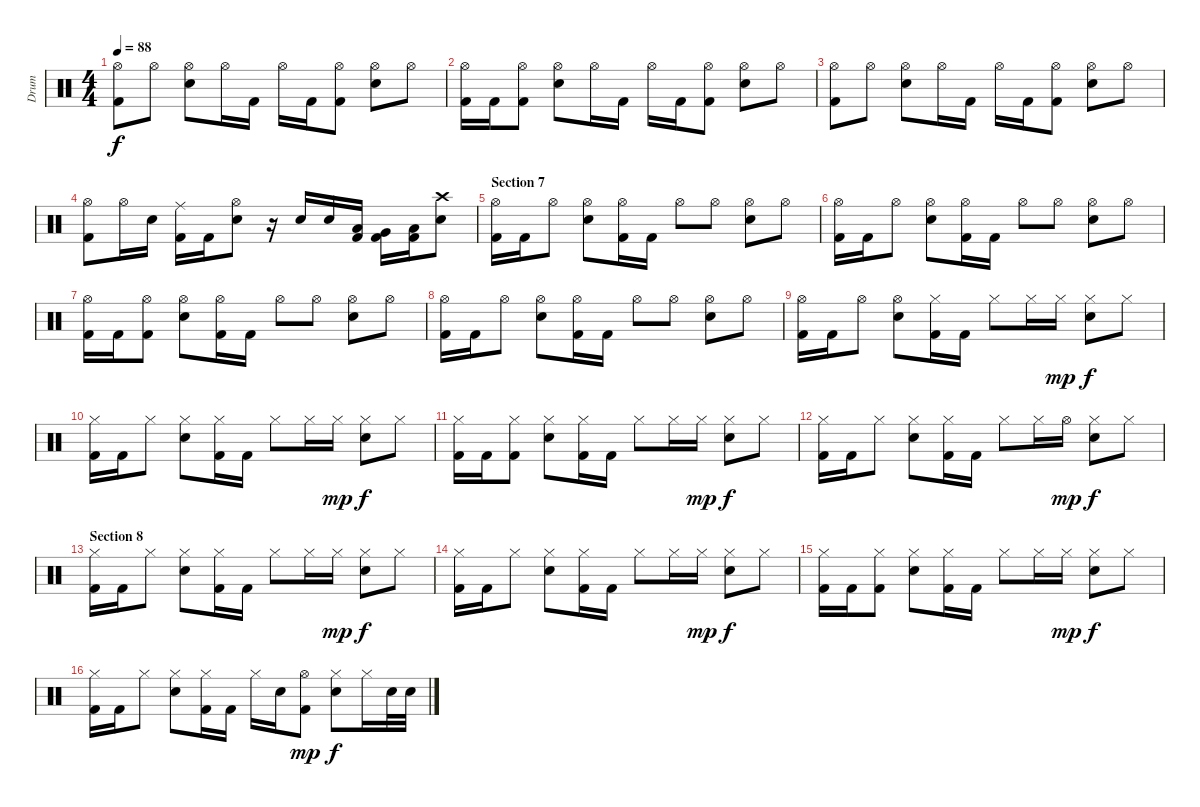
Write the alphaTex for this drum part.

\track ("Drum" "Drum") {instrument percussion}
\staff {score}
\articulation defaults
\ts (4 4)
\tempo 88
\clef neutral
\ks c
("Hi-Hat (open)" "Kick (hit) 2").8{dy f} "Hi-Hat (open)".8 ("Hi-Hat (open)" "Electric Snare (hit)").8 "Hi-Hat (open)".16 "Kick (hit) 2".16 "Hi-Hat (open)".16 "Kick (hit) 2".16 ("Hi-Hat (open)" "Kick (hit) 2").8 ("Hi-Hat (open)" "Electric Snare (hit)").8 "Hi-Hat (open)".8 |
("Hi-Hat (open)" "Kick (hit) 2").16 "Kick (hit) 2".16 ("Hi-Hat (open)" "Kick (hit) 2").8 ("Hi-Hat (open)" "Electric Snare (hit)").8 "Hi-Hat (open)".16 "Kick (hit) 2".16 "Hi-Hat (open)".16 "Kick (hit) 2".16 ("Hi-Hat (open)" "Kick (hit) 2").8 ("Hi-Hat (open)" "Electric Snare (hit)").8 "Hi-Hat (open)".8 |
("Hi-Hat (open)" "Kick (hit) 2").8 "Hi-Hat (open)".8 ("Hi-Hat (open)" "Electric Snare (hit)").8 "Hi-Hat (open)".16 "Kick (hit) 2".16 "Hi-Hat (open)".16 "Kick (hit) 2".16 ("Hi-Hat (open)" "Kick (hit) 2").8 ("Hi-Hat (open)" "Electric Snare (hit)").8 "Hi-Hat (open)".8 |
("Hi-Hat (open)" "Kick (hit) 2").8 "Hi-Hat (open)".16 "Electric Snare (hit)".16 ("Ride (middle)" "Kick (hit) 2").16 "Kick (hit) 2".16 ("Hi-Hat (open)" "Electric Snare (hit)").8 r.16 "Electric Snare (hit)".16 "Electric Snare (hit)".16 ("Low Tom (hit)" "Kick (hit) 2").16 ("Very Low Tom (hit)" "Kick (hit) 2").16 ("Low Floor Tom (hit)" "Kick (hit) 2").16 ("Crash high (hit)" "Electric Snare (hit)").8 |
\section ("" "Section 7")
("Hi-Hat (open)" "Kick (hit) 2").16 "Kick (hit) 2".16 "Hi-Hat (open)".8 ("Hi-Hat (open)" "Electric Snare (hit)").8 ("Hi-Hat (open)" "Kick (hit) 2").16 "Kick (hit) 2".16 "Hi-Hat (open)".8 "Hi-Hat (open)".8 ("Hi-Hat (open)" "Electric Snare (hit)").8 "Hi-Hat (open)".8 |
("Hi-Hat (open)" "Kick (hit) 2").16 "Kick (hit) 2".16 "Hi-Hat (open)".8 ("Hi-Hat (open)" "Electric Snare (hit)").8 ("Hi-Hat (open)" "Kick (hit) 2").16 "Kick (hit) 2".16 "Hi-Hat (open)".8 "Hi-Hat (open)".8 ("Hi-Hat (open)" "Electric Snare (hit)").8 "Hi-Hat (open)".8 |
("Hi-Hat (open)" "Kick (hit) 2").16 "Kick (hit) 2".16 ("Hi-Hat (open)" "Kick (hit) 2").8 ("Hi-Hat (open)" "Electric Snare (hit)").8 ("Hi-Hat (open)" "Kick (hit) 2").16 "Kick (hit) 2".16 "Hi-Hat (open)".8 "Hi-Hat (open)".8 ("Hi-Hat (open)" "Electric Snare (hit)").8 "Hi-Hat (open)".8 |
("Hi-Hat (open)" "Kick (hit) 2").16 "Kick (hit) 2".16 "Hi-Hat (open)".8 ("Hi-Hat (open)" "Electric Snare (hit)").8 ("Hi-Hat (open)" "Kick (hit) 2").16 "Kick (hit) 2".16 "Hi-Hat (open)".8 "Hi-Hat (open)".8 ("Hi-Hat (open)" "Electric Snare (hit)").8 "Hi-Hat (open)".8 |
("Hi-Hat (open)" "Kick (hit) 2").16 "Kick (hit) 2".16 "Hi-Hat (open)".8 ("Hi-Hat (open)" "Electric Snare (hit)").8 ("Hi-Hat (closed)" "Kick (hit) 2").16 "Kick (hit) 2".16 "Hi-Hat (closed)".8 "Hi-Hat (closed)".16 "Hi-Hat (closed)".16{dy mp} ("Hi-Hat (closed)" "Electric Snare (hit)").8{dy f} "Hi-Hat (closed)".8 |
("Hi-Hat (closed)" "Kick (hit) 2").16 "Kick (hit) 2".16 "Hi-Hat (closed)".8 ("Hi-Hat (closed)" "Electric Snare (hit)").8 ("Hi-Hat (closed)" "Kick (hit) 2").16 "Kick (hit) 2".16 "Hi-Hat (closed)".8 "Hi-Hat (closed)".16 "Hi-Hat (closed)".16{dy mp} ("Hi-Hat (closed)" "Electric Snare (hit)").8{dy f} "Hi-Hat (closed)".8 |
("Hi-Hat (closed)" "Kick (hit) 2").16 "Kick (hit) 2".16 ("Hi-Hat (closed)" "Kick (hit) 2").8 ("Hi-Hat (closed)" "Electric Snare (hit)").8 ("Hi-Hat (closed)" "Kick (hit) 2").16 "Kick (hit) 2".16 "Hi-Hat (closed)".8 "Hi-Hat (closed)".16 "Hi-Hat (closed)".16{dy mp} ("Hi-Hat (closed)" "Electric Snare (hit)").8{dy f} "Hi-Hat (closed)".8 |
("Hi-Hat (closed)" "Kick (hit) 2").16 "Kick (hit) 2".16 "Hi-Hat (closed)".8 ("Hi-Hat (closed)" "Electric Snare (hit)").8 ("Hi-Hat (closed)" "Kick (hit) 2").16 "Kick (hit) 2".16 "Hi-Hat (closed)".8 "Hi-Hat (closed)".16 "Hi-Hat (open)".16{dy mp} ("Hi-Hat (closed)" "Electric Snare (hit)").8{dy f} "Hi-Hat (closed)".8 |
\section ("" "Section 8")
("Hi-Hat (closed)" "Kick (hit) 2").16 "Kick (hit) 2".16 "Hi-Hat (closed)".8 ("Hi-Hat (closed)" "Electric Snare (hit)").8 ("Hi-Hat (closed)" "Kick (hit) 2").16 "Kick (hit) 2".16 "Hi-Hat (closed)".8 "Hi-Hat (closed)".16 "Hi-Hat (closed)".16{dy mp} ("Hi-Hat (closed)" "Electric Snare (hit)").8{dy f} "Hi-Hat (closed)".8 |
("Hi-Hat (closed)" "Kick (hit) 2").16 "Kick (hit) 2".16 "Hi-Hat (closed)".8 ("Hi-Hat (closed)" "Electric Snare (hit)").8 ("Hi-Hat (closed)" "Kick (hit) 2").16 "Kick (hit) 2".16 "Hi-Hat (closed)".8 "Hi-Hat (closed)".16 "Hi-Hat (closed)".16{dy mp} ("Hi-Hat (closed)" "Electric Snare (hit)").8{dy f} "Hi-Hat (closed)".8 |
("Hi-Hat (closed)" "Kick (hit) 2").16 "Kick (hit) 2".16 ("Hi-Hat (closed)" "Kick (hit) 2").8 ("Hi-Hat (closed)" "Electric Snare (hit)").8 ("Hi-Hat (closed)" "Kick (hit) 2").16 "Kick (hit) 2".16 "Hi-Hat (closed)".8 "Hi-Hat (closed)".16 "Hi-Hat (closed)".16{dy mp} ("Hi-Hat (closed)" "Electric Snare (hit)").8{dy f} "Hi-Hat (closed)".8 |
("Hi-Hat (closed)" "Kick (hit) 2").16 "Kick (hit) 2".16 "Hi-Hat (closed)".8 ("Hi-Hat (closed)" "Electric Snare (hit)").8 ("Hi-Hat (closed)" "Kick (hit) 2").16 "Kick (hit) 2".16 "Hi-Hat (closed)".16 "Electric Snare (hit)".16 ("Hi-Hat (open)" "Kick (hit) 2").8{dy mp} ("Hi-Hat (closed)" "Electric Snare (hit)").8{dy f} "Hi-Hat (closed)".16 "Electric Snare (hit)".32 "Electric Snare (hit)".32
